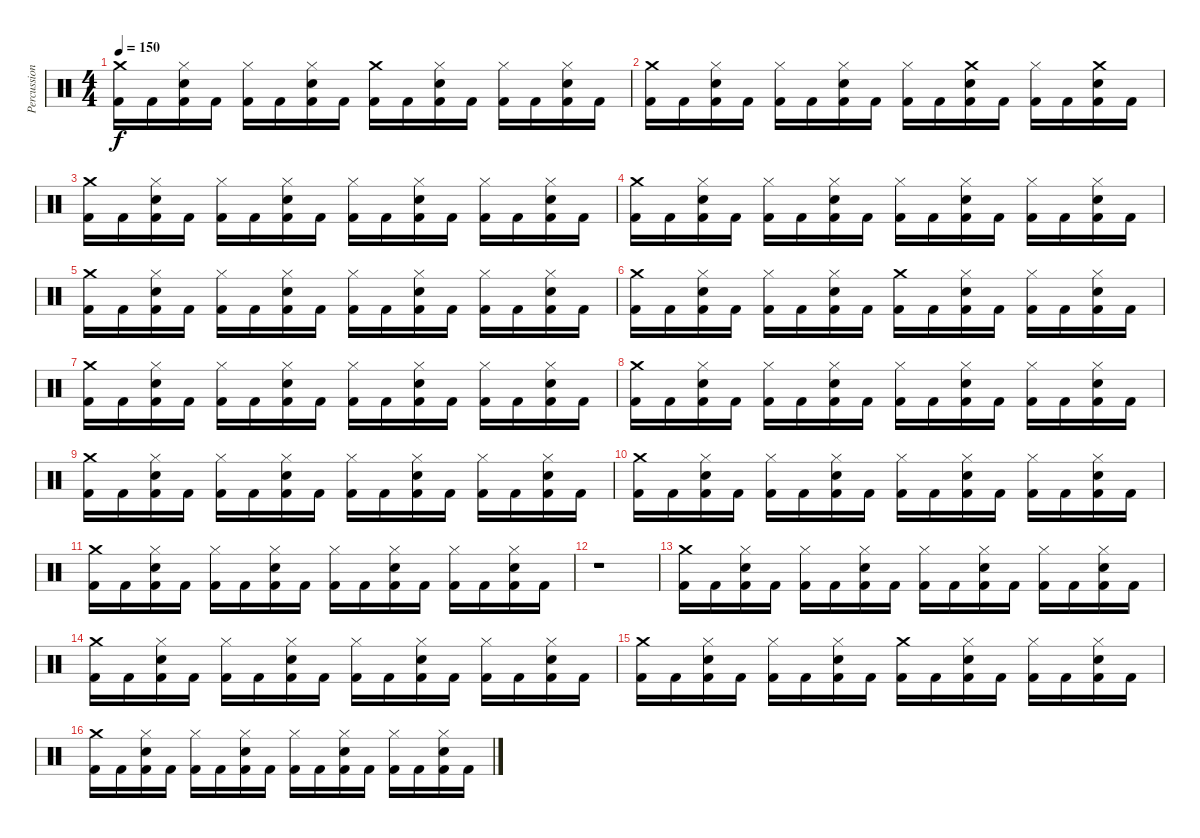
\track ("Percussioni" "Percussion") {instrument percussion}
\staff {score}
\articulation defaults
\ts (4 4)
\tempo 150
\clef neutral
\ks c
("Crash medium (hit)" "Kick (hit) 2").16{dy f} "Kick (hit) 2".16 ("Hi-Hat (closed)" "Electric Snare (hit)" "Kick (hit) 2").16 "Kick (hit) 2".16 ("Hi-Hat (closed)" "Kick (hit) 2").16 "Kick (hit) 2".16 ("Hi-Hat (closed)" "Electric Snare (hit)" "Kick (hit) 2").16 "Kick (hit) 2".16 ("Crash medium (hit)" "Kick (hit) 2").16 "Kick (hit) 2".16 ("Hi-Hat (closed)" "Electric Snare (hit)" "Kick (hit) 2").16 "Kick (hit) 2".16 ("Hi-Hat (closed)" "Kick (hit) 2").16 "Kick (hit) 2".16 ("Hi-Hat (closed)" "Electric Snare (hit)" "Kick (hit) 2").16 "Kick (hit) 2".16 |
("Crash medium (hit)" "Kick (hit) 2").16 "Kick (hit) 2".16 ("Hi-Hat (closed)" "Electric Snare (hit)" "Kick (hit) 2").16 "Kick (hit) 2".16 ("Hi-Hat (closed)" "Kick (hit) 2").16 "Kick (hit) 2".16 ("Hi-Hat (closed)" "Electric Snare (hit)" "Kick (hit) 2").16 "Kick (hit) 2".16 ("Hi-Hat (closed)" "Kick (hit) 2").16 "Kick (hit) 2".16 ("Crash medium (hit)" "Electric Snare (hit)" "Kick (hit) 2").16 "Kick (hit) 2".16 ("Hi-Hat (closed)" "Kick (hit) 2").16 "Kick (hit) 2".16 ("Crash medium (hit)" "Electric Snare (hit)" "Kick (hit) 2").16 "Kick (hit) 2".16 |
("Crash medium (hit)" "Kick (hit) 2").16 "Kick (hit) 2".16 ("Hi-Hat (closed)" "Electric Snare (hit)" "Kick (hit) 2").16 "Kick (hit) 2".16 ("Hi-Hat (closed)" "Kick (hit) 2").16 "Kick (hit) 2".16 ("Hi-Hat (closed)" "Electric Snare (hit)" "Kick (hit) 2").16 "Kick (hit) 2".16 ("Hi-Hat (closed)" "Kick (hit) 2").16 "Kick (hit) 2".16 ("Hi-Hat (closed)" "Electric Snare (hit)" "Kick (hit) 2").16 "Kick (hit) 2".16 ("Hi-Hat (closed)" "Kick (hit) 2").16 "Kick (hit) 2".16 ("Hi-Hat (closed)" "Electric Snare (hit)" "Kick (hit) 2").16 "Kick (hit) 2".16 |
("Crash medium (hit)" "Kick (hit) 2").16 "Kick (hit) 2".16 ("Hi-Hat (closed)" "Electric Snare (hit)" "Kick (hit) 2").16 "Kick (hit) 2".16 ("Hi-Hat (closed)" "Kick (hit) 2").16 "Kick (hit) 2".16 ("Hi-Hat (closed)" "Electric Snare (hit)" "Kick (hit) 2").16 "Kick (hit) 2".16 ("Hi-Hat (closed)" "Kick (hit) 2").16 "Kick (hit) 2".16 ("Hi-Hat (closed)" "Electric Snare (hit)" "Kick (hit) 2").16 "Kick (hit) 2".16 ("Hi-Hat (closed)" "Kick (hit) 2").16 "Kick (hit) 2".16 ("Hi-Hat (closed)" "Electric Snare (hit)" "Kick (hit) 2").16 "Kick (hit) 2".16 |
("Crash medium (hit)" "Kick (hit) 2").16 "Kick (hit) 2".16 ("Hi-Hat (closed)" "Electric Snare (hit)" "Kick (hit) 2").16 "Kick (hit) 2".16 ("Hi-Hat (closed)" "Kick (hit) 2").16 "Kick (hit) 2".16 ("Hi-Hat (closed)" "Electric Snare (hit)" "Kick (hit) 2").16 "Kick (hit) 2".16 ("Hi-Hat (closed)" "Kick (hit) 2").16 "Kick (hit) 2".16 ("Hi-Hat (closed)" "Electric Snare (hit)" "Kick (hit) 2").16 "Kick (hit) 2".16 ("Hi-Hat (closed)" "Kick (hit) 2").16 "Kick (hit) 2".16 ("Hi-Hat (closed)" "Electric Snare (hit)" "Kick (hit) 2").16 "Kick (hit) 2".16 |
("Crash medium (hit)" "Kick (hit) 2").16 "Kick (hit) 2".16 ("Hi-Hat (closed)" "Electric Snare (hit)" "Kick (hit) 2").16 "Kick (hit) 2".16 ("Hi-Hat (closed)" "Kick (hit) 2").16 "Kick (hit) 2".16 ("Hi-Hat (closed)" "Electric Snare (hit)" "Kick (hit) 2").16 "Kick (hit) 2".16 ("Crash medium (hit)" "Kick (hit) 2").16 "Kick (hit) 2".16 ("Hi-Hat (closed)" "Electric Snare (hit)" "Kick (hit) 2").16 "Kick (hit) 2".16 ("Hi-Hat (closed)" "Kick (hit) 2").16 "Kick (hit) 2".16 ("Hi-Hat (closed)" "Electric Snare (hit)" "Kick (hit) 2").16 "Kick (hit) 2".16 |
("Crash medium (hit)" "Kick (hit) 2").16 "Kick (hit) 2".16 ("Hi-Hat (closed)" "Electric Snare (hit)" "Kick (hit) 2").16 "Kick (hit) 2".16 ("Hi-Hat (closed)" "Kick (hit) 2").16 "Kick (hit) 2".16 ("Hi-Hat (closed)" "Electric Snare (hit)" "Kick (hit) 2").16 "Kick (hit) 2".16 ("Hi-Hat (closed)" "Kick (hit) 2").16 "Kick (hit) 2".16 ("Hi-Hat (closed)" "Electric Snare (hit)" "Kick (hit) 2").16 "Kick (hit) 2".16 ("Hi-Hat (closed)" "Kick (hit) 2").16 "Kick (hit) 2".16 ("Hi-Hat (closed)" "Electric Snare (hit)" "Kick (hit) 2").16 "Kick (hit) 2".16 |
("Crash medium (hit)" "Kick (hit) 2").16 "Kick (hit) 2".16 ("Hi-Hat (closed)" "Electric Snare (hit)" "Kick (hit) 2").16 "Kick (hit) 2".16 ("Hi-Hat (closed)" "Kick (hit) 2").16 "Kick (hit) 2".16 ("Hi-Hat (closed)" "Electric Snare (hit)" "Kick (hit) 2").16 "Kick (hit) 2".16 ("Hi-Hat (closed)" "Kick (hit) 2").16 "Kick (hit) 2".16 ("Hi-Hat (closed)" "Electric Snare (hit)" "Kick (hit) 2").16 "Kick (hit) 2".16 ("Hi-Hat (closed)" "Kick (hit) 2").16 "Kick (hit) 2".16 ("Hi-Hat (closed)" "Electric Snare (hit)" "Kick (hit) 2").16 "Kick (hit) 2".16 |
("Crash medium (hit)" "Kick (hit) 2").16 "Kick (hit) 2".16 ("Hi-Hat (closed)" "Electric Snare (hit)" "Kick (hit) 2").16 "Kick (hit) 2".16 ("Hi-Hat (closed)" "Kick (hit) 2").16 "Kick (hit) 2".16 ("Hi-Hat (closed)" "Electric Snare (hit)" "Kick (hit) 2").16 "Kick (hit) 2".16 ("Hi-Hat (closed)" "Kick (hit) 2").16 "Kick (hit) 2".16 ("Hi-Hat (closed)" "Electric Snare (hit)" "Kick (hit) 2").16 "Kick (hit) 2".16 ("Hi-Hat (closed)" "Kick (hit) 2").16 "Kick (hit) 2".16 ("Hi-Hat (closed)" "Electric Snare (hit)" "Kick (hit) 2").16 "Kick (hit) 2".16 |
("Crash medium (hit)" "Kick (hit) 2").16 "Kick (hit) 2".16 ("Hi-Hat (closed)" "Electric Snare (hit)" "Kick (hit) 2").16 "Kick (hit) 2".16 ("Hi-Hat (closed)" "Kick (hit) 2").16 "Kick (hit) 2".16 ("Hi-Hat (closed)" "Electric Snare (hit)" "Kick (hit) 2").16 "Kick (hit) 2".16 ("Hi-Hat (closed)" "Kick (hit) 2").16 "Kick (hit) 2".16 ("Hi-Hat (closed)" "Electric Snare (hit)" "Kick (hit) 2").16 "Kick (hit) 2".16 ("Hi-Hat (closed)" "Kick (hit) 2").16 "Kick (hit) 2".16 ("Hi-Hat (closed)" "Electric Snare (hit)" "Kick (hit) 2").16 "Kick (hit) 2".16 |
("Crash medium (hit)" "Kick (hit) 2").16 "Kick (hit) 2".16 ("Hi-Hat (closed)" "Electric Snare (hit)" "Kick (hit) 2").16 "Kick (hit) 2".16 ("Hi-Hat (closed)" "Kick (hit) 2").16 "Kick (hit) 2".16 ("Hi-Hat (closed)" "Electric Snare (hit)" "Kick (hit) 2").16 "Kick (hit) 2".16 ("Hi-Hat (closed)" "Kick (hit) 2").16 "Kick (hit) 2".16 ("Hi-Hat (closed)" "Electric Snare (hit)" "Kick (hit) 2").16 "Kick (hit) 2".16 ("Hi-Hat (closed)" "Kick (hit) 2").16 "Kick (hit) 2".16 ("Hi-Hat (closed)" "Electric Snare (hit)" "Kick (hit) 2").16 "Kick (hit) 2".16 |
r.1 |
("Crash medium (hit)" "Kick (hit) 2").16 "Kick (hit) 2".16 ("Hi-Hat (closed)" "Electric Snare (hit)" "Kick (hit) 2").16 "Kick (hit) 2".16 ("Hi-Hat (closed)" "Kick (hit) 2").16 "Kick (hit) 2".16 ("Hi-Hat (closed)" "Electric Snare (hit)" "Kick (hit) 2").16 "Kick (hit) 2".16 ("Hi-Hat (closed)" "Kick (hit) 2").16 "Kick (hit) 2".16 ("Hi-Hat (closed)" "Electric Snare (hit)" "Kick (hit) 2").16 "Kick (hit) 2".16 ("Hi-Hat (closed)" "Kick (hit) 2").16 "Kick (hit) 2".16 ("Hi-Hat (closed)" "Electric Snare (hit)" "Kick (hit) 2").16 "Kick (hit) 2".16 |
("Crash medium (hit)" "Kick (hit) 2").16 "Kick (hit) 2".16 ("Hi-Hat (closed)" "Electric Snare (hit)" "Kick (hit) 2").16 "Kick (hit) 2".16 ("Hi-Hat (closed)" "Kick (hit) 2").16 "Kick (hit) 2".16 ("Hi-Hat (closed)" "Electric Snare (hit)" "Kick (hit) 2").16 "Kick (hit) 2".16 ("Hi-Hat (closed)" "Kick (hit) 2").16 "Kick (hit) 2".16 ("Hi-Hat (closed)" "Electric Snare (hit)" "Kick (hit) 2").16 "Kick (hit) 2".16 ("Hi-Hat (closed)" "Kick (hit) 2").16 "Kick (hit) 2".16 ("Hi-Hat (closed)" "Electric Snare (hit)" "Kick (hit) 2").16 "Kick (hit) 2".16 |
("Crash medium (hit)" "Kick (hit) 2").16 "Kick (hit) 2".16 ("Hi-Hat (closed)" "Electric Snare (hit)" "Kick (hit) 2").16 "Kick (hit) 2".16 ("Hi-Hat (closed)" "Kick (hit) 2").16 "Kick (hit) 2".16 ("Hi-Hat (closed)" "Electric Snare (hit)" "Kick (hit) 2").16 "Kick (hit) 2".16 ("Crash medium (hit)" "Kick (hit) 2").16 "Kick (hit) 2".16 ("Hi-Hat (closed)" "Electric Snare (hit)" "Kick (hit) 2").16 "Kick (hit) 2".16 ("Hi-Hat (closed)" "Kick (hit) 2").16 "Kick (hit) 2".16 ("Hi-Hat (closed)" "Electric Snare (hit)" "Kick (hit) 2").16 "Kick (hit) 2".16 |
("Crash medium (hit)" "Kick (hit) 2").16 "Kick (hit) 2".16 ("Hi-Hat (closed)" "Electric Snare (hit)" "Kick (hit) 2").16 "Kick (hit) 2".16 ("Hi-Hat (closed)" "Kick (hit) 2").16 "Kick (hit) 2".16 ("Hi-Hat (closed)" "Electric Snare (hit)" "Kick (hit) 2").16 "Kick (hit) 2".16 ("Hi-Hat (closed)" "Kick (hit) 2").16 "Kick (hit) 2".16 ("Hi-Hat (closed)" "Electric Snare (hit)" "Kick (hit) 2").16 "Kick (hit) 2".16 ("Hi-Hat (closed)" "Kick (hit) 2").16 "Kick (hit) 2".16 ("Hi-Hat (closed)" "Electric Snare (hit)" "Kick (hit) 2").16 "Kick (hit) 2".16
